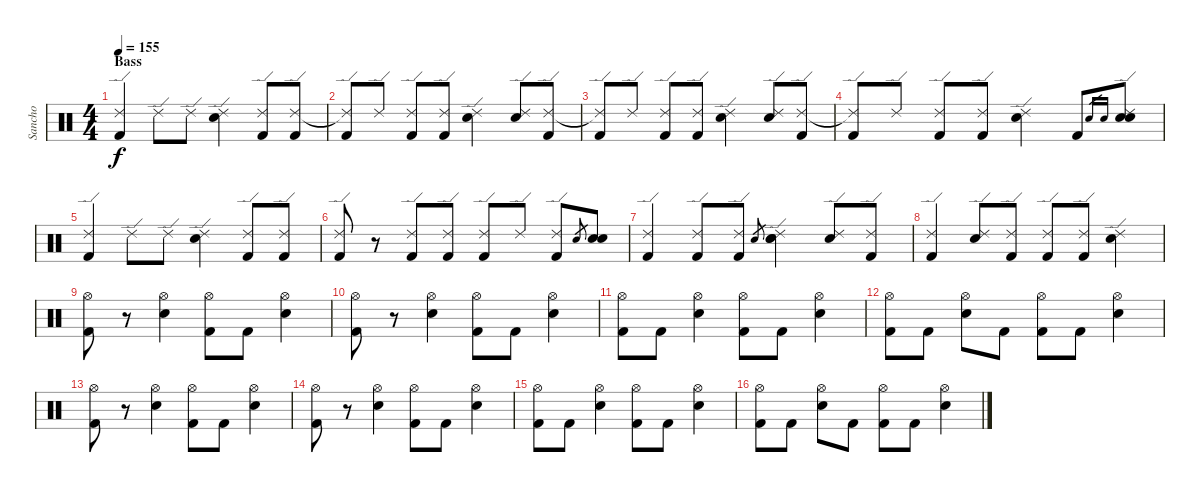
\track ("Sancho" "Sancho") {instrument percussion}
\staff {score}
\articulation defaults
\ts (4 4)
\section ("" "Bass ")
\tempo 155
\clef neutral
\ks c
("Ride (edge) 2" "Kick (hit) 2").4{dy f} "Ride (edge) 2".8 "Ride (edge) 2".8 ("Ride (edge) 2" "Electric Snare (hit)").4 ("Ride (edge) 2" "Kick (hit) 2").8 ("Ride (edge) 2" "Kick (hit) 2").8 |
("Ride (edge) 2"{t} "Kick (hit) 2").8 "Ride (edge) 2".8 ("Ride (edge) 2" "Kick (hit) 2").8 ("Ride (edge) 2" "Kick (hit) 2").8 ("Ride (edge) 2" "Electric Snare (hit)").4 ("Ride (edge) 2" "Electric Snare (hit)").8 ("Ride (edge) 2" "Kick (hit) 2").8 |
("Ride (edge) 2"{t} "Kick (hit) 2").8 "Ride (edge) 2".8 ("Ride (edge) 2" "Kick (hit) 2").8 ("Ride (edge) 2" "Kick (hit) 2").8 ("Ride (edge) 2" "Electric Snare (hit)").4 ("Ride (edge) 2" "Electric Snare (hit)").8 ("Ride (edge) 2" "Kick (hit) 2").8 |
("Ride (edge) 2"{t} "Kick (hit) 2").8 "Ride (edge) 2".8 ("Ride (edge) 2" "Kick (hit) 2").8 ("Ride (edge) 2" "Kick (hit) 2").8 ("Ride (edge) 2" "Electric Snare (hit)").4 "Kick (hit) 2".8 "Electric Snare (hit)".16{gr} "Electric Snare (hit)".16{gr} ("Ride (edge) 2" "Electric Snare (hit)" "Electric Snare (hit)").8 |
("Ride (edge) 2" "Kick (hit) 2").4 "Ride (edge) 2".8 "Ride (edge) 2".8 ("Ride (edge) 2" "Electric Snare (hit)").4 ("Ride (edge) 2" "Kick (hit) 2").8 ("Ride (edge) 2" "Kick (hit) 2").8 |
("Ride (edge) 2" "Kick (hit) 2").8 r.8 ("Ride (edge) 2" "Kick (hit) 2").8 ("Ride (edge) 2" "Kick (hit) 2").8 ("Ride (edge) 2" "Kick (hit) 2").8 "Ride (edge) 2".8 ("Ride (edge) 2" "Kick (hit) 2").8 "Electric Snare (hit)".8{gr} ("Electric Snare (hit)" "Electric Snare (hit)").8 |
("Ride (edge) 2" "Kick (hit) 2").4 ("Ride (edge) 2" "Kick (hit) 2").8 ("Ride (edge) 2" "Kick (hit) 2").8 "Electric Snare (hit)".8{gr} ("Ride (edge) 2" "Electric Snare (hit)" "Electric Snare (hit)").4 ("Ride (edge) 2" "Electric Snare (hit)").8 ("Ride (edge) 2" "Kick (hit) 2").8 |
("Ride (edge) 2" "Kick (hit) 2").4 ("Ride (edge) 2" "Electric Snare (hit)").8 ("Ride (edge) 2" "Kick (hit) 2").8 ("Ride (edge) 2" "Kick (hit) 2").8 ("Ride (edge) 2" "Kick (hit) 2").8 ("Ride (edge) 2" "Electric Snare (hit)").4 |
("Hi-Hat (open)" "Kick (hit) 2").8 r.8 ("Hi-Hat (open)" "Electric Snare (hit)").4 ("Hi-Hat (open)" "Kick (hit) 2").8 "Kick (hit) 2".8 ("Hi-Hat (open)" "Electric Snare (hit)").4 |
("Hi-Hat (open)" "Kick (hit) 2").8 r.8 ("Hi-Hat (open)" "Electric Snare (hit)").4 ("Hi-Hat (open)" "Kick (hit) 2").8 "Kick (hit) 2".8 ("Hi-Hat (open)" "Electric Snare (hit)").4 |
("Hi-Hat (open)" "Kick (hit) 2").8 "Kick (hit) 2".8 ("Hi-Hat (open)" "Electric Snare (hit)").4 ("Hi-Hat (open)" "Kick (hit) 2").8 "Kick (hit) 2".8 ("Hi-Hat (open)" "Electric Snare (hit)").4 |
("Hi-Hat (open)" "Kick (hit) 2").8 "Kick (hit) 2".8 ("Hi-Hat (open)" "Electric Snare (hit)").8 "Kick (hit) 2".8 ("Hi-Hat (open)" "Kick (hit) 2").8 "Kick (hit) 2".8 ("Hi-Hat (open)" "Electric Snare (hit)").4 |
("Hi-Hat (open)" "Kick (hit) 2").8 r.8 ("Hi-Hat (open)" "Electric Snare (hit)").4 ("Hi-Hat (open)" "Kick (hit) 2").8 "Kick (hit) 2".8 ("Hi-Hat (open)" "Electric Snare (hit)").4 |
("Hi-Hat (open)" "Kick (hit) 2").8 r.8 ("Hi-Hat (open)" "Electric Snare (hit)").4 ("Hi-Hat (open)" "Kick (hit) 2").8 "Kick (hit) 2".8 ("Hi-Hat (open)" "Electric Snare (hit)").4 |
("Hi-Hat (open)" "Kick (hit) 2").8 "Kick (hit) 2".8 ("Hi-Hat (open)" "Electric Snare (hit)").4 ("Hi-Hat (open)" "Kick (hit) 2").8 "Kick (hit) 2".8 ("Hi-Hat (open)" "Electric Snare (hit)").4 |
("Hi-Hat (open)" "Kick (hit) 2").8 "Kick (hit) 2".8 ("Hi-Hat (open)" "Electric Snare (hit)").8 "Kick (hit) 2".8 ("Hi-Hat (open)" "Kick (hit) 2").8 "Kick (hit) 2".8 ("Hi-Hat (open)" "Electric Snare (hit)").4
